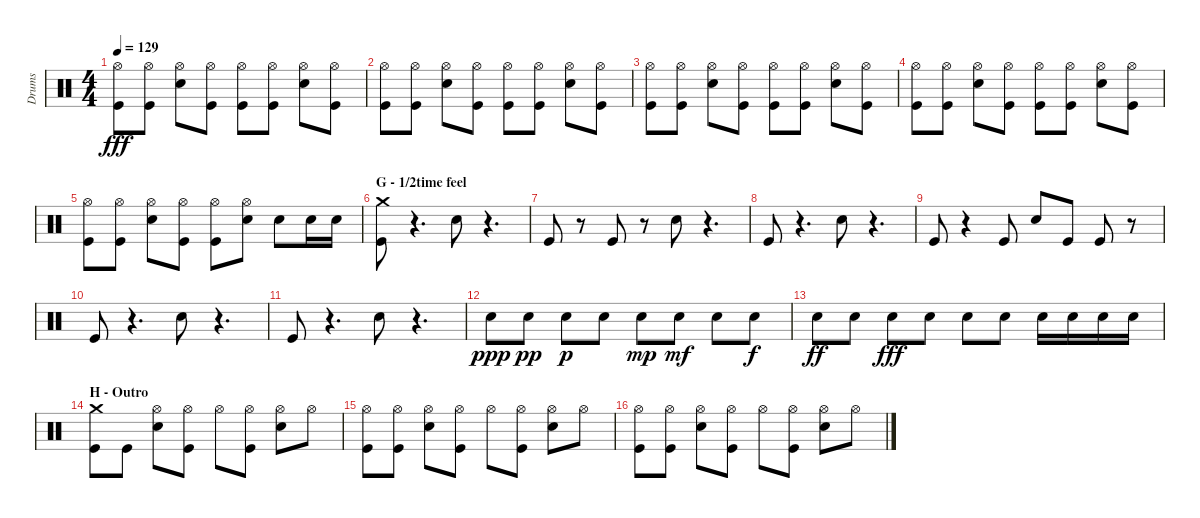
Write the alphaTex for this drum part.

\track ("Drums" "Drums") {instrument percussion}
\staff {score}
\articulation defaults
\ts (4 4)
\tempo 129
\clef neutral
\ks c
("Kick (hit)" "Hi-Hat (open)").8{dy fff} ("Kick (hit)" "Hi-Hat (open)").8 ("Snare (hit) 2" "Hi-Hat (open)").8 ("Kick (hit)" "Hi-Hat (open)").8 ("Kick (hit)" "Hi-Hat (open)").8 ("Kick (hit)" "Hi-Hat (open)").8 ("Snare (hit) 2" "Hi-Hat (open)").8 ("Kick (hit)" "Hi-Hat (open)").8 |
("Kick (hit)" "Hi-Hat (open)").8 ("Kick (hit)" "Hi-Hat (open)").8 ("Snare (hit) 2" "Hi-Hat (open)").8 ("Kick (hit)" "Hi-Hat (open)").8 ("Kick (hit)" "Hi-Hat (open)").8 ("Kick (hit)" "Hi-Hat (open)").8 ("Snare (hit) 2" "Hi-Hat (open)").8 ("Kick (hit)" "Hi-Hat (open)").8 |
("Kick (hit)" "Hi-Hat (open)").8 ("Kick (hit)" "Hi-Hat (open)").8 ("Snare (hit) 2" "Hi-Hat (open)").8 ("Kick (hit)" "Hi-Hat (open)").8 ("Kick (hit)" "Hi-Hat (open)").8 ("Kick (hit)" "Hi-Hat (open)").8 ("Snare (hit) 2" "Hi-Hat (open)").8 ("Kick (hit)" "Hi-Hat (open)").8 |
("Kick (hit)" "Hi-Hat (open)").8 ("Kick (hit)" "Hi-Hat (open)").8 ("Snare (hit) 2" "Hi-Hat (open)").8 ("Kick (hit)" "Hi-Hat (open)").8 ("Kick (hit)" "Hi-Hat (open)").8 ("Kick (hit)" "Hi-Hat (open)").8 ("Snare (hit) 2" "Hi-Hat (open)").8 ("Kick (hit)" "Hi-Hat (open)").8 |
("Kick (hit)" "Hi-Hat (open)").8 ("Kick (hit)" "Hi-Hat (open)").8 ("Snare (hit) 2" "Hi-Hat (open)").8 ("Kick (hit)" "Hi-Hat (open)").8 ("Kick (hit)" "Hi-Hat (open)").8 ("Snare (hit) 2" "Hi-Hat (open)").8 "Snare (hit) 2".8 "Snare (hit) 2".16 "Snare (hit) 2".16 |
\section ("" "G - 1/2time feel")
("Kick (hit)" "Crash medium (hit)").8 r.4{d} "Snare (hit) 2".8 r.4{d} |
"Kick (hit)".8 r.8 "Kick (hit)".8 r.8 "Snare (hit) 2".8 r.4{d} |
"Kick (hit)".8 r.4{d} "Snare (hit) 2".8 r.4{d} |
"Kick (hit)".8 r.4 "Kick (hit)".8 "Snare (hit) 2".8 "Kick (hit)".8 "Kick (hit)".8 r.8 |
"Kick (hit)".8 r.4{d} "Snare (hit) 2".8 r.4{d} |
"Kick (hit)".8 r.4{d} "Snare (hit) 2".8 r.4{d} |
"Snare (hit) 2".8{dy ppp} "Snare (hit) 2".8{dy pp} "Snare (hit) 2".8{dy p} "Snare (hit) 2".8 "Snare (hit) 2".8{dy mp} "Snare (hit) 2".8{dy mf} "Snare (hit) 2".8 "Snare (hit) 2".8{dy f} |
"Snare (hit) 2".8{dy ff} "Snare (hit) 2".8 "Snare (hit) 2".8{dy fff} "Snare (hit) 2".8 "Snare (hit) 2".8 "Snare (hit) 2".8 "Snare (hit) 2".16 "Snare (hit) 2".16 "Snare (hit) 2".16 "Snare (hit) 2".16 |
\section ("" "H - Outro")
("Kick (hit)" "Crash medium (hit)").8 "Kick (hit)".8 ("Snare (hit) 2" "Hi-Hat (open)").8 ("Kick (hit)" "Hi-Hat (open)").8 "Hi-Hat (open)".8 ("Kick (hit)" "Hi-Hat (open)").8 ("Snare (hit) 2" "Hi-Hat (open)").8 "Hi-Hat (open)".8 |
("Hi-Hat (open)" "Kick (hit)").8 ("Hi-Hat (open)" "Kick (hit)").8 ("Snare (hit) 2" "Hi-Hat (open)").8 ("Kick (hit)" "Hi-Hat (open)").8 "Hi-Hat (open)".8 ("Kick (hit)" "Hi-Hat (open)").8 ("Snare (hit) 2" "Hi-Hat (open)").8 "Hi-Hat (open)".8 |
("Hi-Hat (open)" "Kick (hit)").8 ("Hi-Hat (open)" "Kick (hit)").8 ("Snare (hit) 2" "Hi-Hat (open)").8 ("Kick (hit)" "Hi-Hat (open)").8 "Hi-Hat (open)".8 ("Kick (hit)" "Hi-Hat (open)").8 ("Snare (hit) 2" "Hi-Hat (open)").8 "Hi-Hat (open)".8
